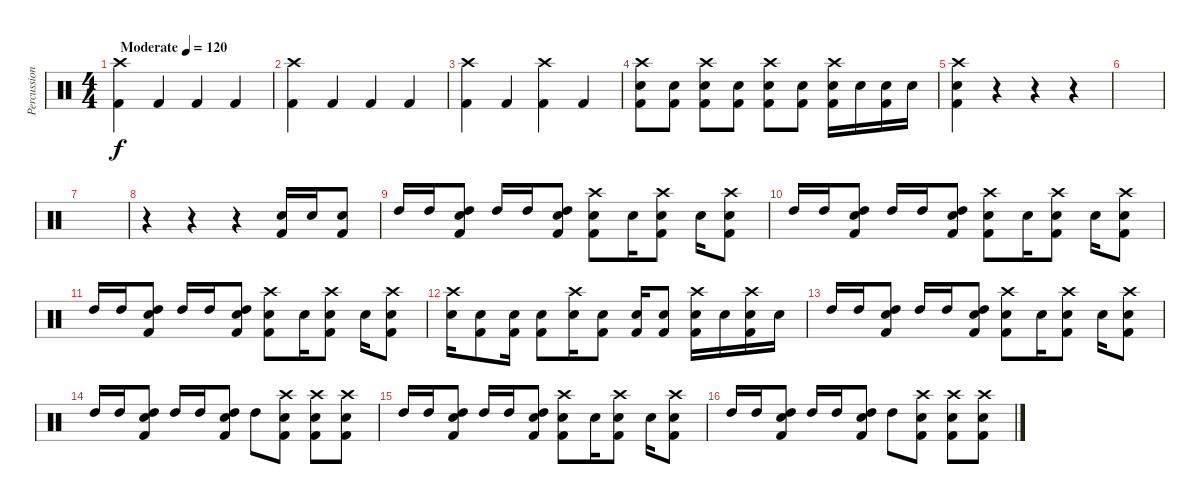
\track ("Percussion" "Percussion") {instrument percussion}
\staff {score}
\articulation defaults
\ts (4 4)
\tempo (120 "Moderate")
\clef neutral
\ks c
("Crash high (hit)" "Kick (hit) 2").4{dy f} "Kick (hit) 2".4 "Kick (hit) 2".4 "Kick (hit) 2".4 |
("Crash high (hit)" "Kick (hit) 2").4 "Kick (hit) 2".4 "Kick (hit) 2".4 "Kick (hit) 2".4 |
("Crash high (hit)" "Kick (hit) 2").4 "Kick (hit) 2".4 ("Crash high (hit)" "Kick (hit) 2").4 "Kick (hit) 2".4 |
("Crash high (hit)" "Electric Snare (hit)" "Kick (hit) 2").8 ("Electric Snare (hit)" "Kick (hit) 2").8 ("Crash high (hit)" "Electric Snare (hit)" "Kick (hit) 2").8 ("Electric Snare (hit)" "Kick (hit) 2").8 ("Crash high (hit)" "Electric Snare (hit)" "Kick (hit) 2").8 ("Electric Snare (hit)" "Kick (hit) 2").8 ("Crash high (hit)" "Electric Snare (hit)" "Kick (hit) 2").16 "Electric Snare (hit)".16 ("Electric Snare (hit)" "Kick (hit) 2").16 "Electric Snare (hit)".16 |
("Crash high (hit)" "Electric Snare (hit)" "Kick (hit) 2").4 r.4 r.4 r.4 |
|
|
r.4 r.4 r.4 ("Electric Snare (hit)" "Kick (hit) 2").16 "Electric Snare (hit)".16 ("Electric Snare (hit)" "Kick (hit) 2").8 |
"High Tom (hit)".16 "High Tom (hit)".16 ("Electric Snare (hit)" "High Tom (hit)" "Kick (hit) 2").8 "High Tom (hit)".16 "High Tom (hit)".16 ("Electric Snare (hit)" "High Tom (hit)" "Kick (hit) 2").8 ("Crash high (hit)" "Electric Snare (hit)" "Kick (hit) 2").8 "Electric Snare (hit)".16 ("Crash high (hit)" "Electric Snare (hit)" "Kick (hit) 2").8 "Electric Snare (hit)".16 ("Crash high (hit)" "Electric Snare (hit)" "Kick (hit) 2").8 |
"High Tom (hit)".16 "High Tom (hit)".16 ("Electric Snare (hit)" "High Tom (hit)" "Kick (hit) 2").8 "High Tom (hit)".16 "High Tom (hit)".16 ("Electric Snare (hit)" "High Tom (hit)" "Kick (hit) 2").8 ("Crash high (hit)" "Electric Snare (hit)" "Kick (hit) 2").8 "Electric Snare (hit)".16 ("Crash high (hit)" "Electric Snare (hit)" "Kick (hit) 2").8 "Electric Snare (hit)".16 ("Crash high (hit)" "Electric Snare (hit)" "Kick (hit) 2").8 |
"High Tom (hit)".16 "High Tom (hit)".16 ("Electric Snare (hit)" "High Tom (hit)" "Kick (hit) 2").8 "High Tom (hit)".16 "High Tom (hit)".16 ("Electric Snare (hit)" "High Tom (hit)" "Kick (hit) 2").8 ("Crash high (hit)" "Electric Snare (hit)" "Kick (hit) 2").8 "Electric Snare (hit)".16 ("Crash high (hit)" "Electric Snare (hit)" "Kick (hit) 2").8 "Electric Snare (hit)".16 ("Crash high (hit)" "Electric Snare (hit)" "Kick (hit) 2").8 |
("Crash high (hit)" "Electric Snare (hit)").16 ("Electric Snare (hit)" "Kick (hit) 2").8 ("Electric Snare (hit)" "Kick (hit) 2").16 ("Electric Snare (hit)" "Kick (hit) 2").8 ("Crash high (hit)" "Electric Snare (hit)").16 ("Electric Snare (hit)" "Kick (hit) 2").8 ("Electric Snare (hit)" "Kick (hit) 2").16 ("Electric Snare (hit)" "Kick (hit) 2").8 ("Crash high (hit)" "Electric Snare (hit)" "Kick (hit) 2").16 "Electric Snare (hit)".16 ("Crash high (hit)" "Electric Snare (hit)" "Kick (hit) 2").16 "Electric Snare (hit)".16 |
"High Tom (hit)".16 "High Tom (hit)".16 ("Electric Snare (hit)" "High Tom (hit)" "Kick (hit) 2").8 "High Tom (hit)".16 "High Tom (hit)".16 ("Electric Snare (hit)" "High Tom (hit)" "Kick (hit) 2").8 ("Crash high (hit)" "Electric Snare (hit)" "Kick (hit) 2").8 "Electric Snare (hit)".16 ("Crash high (hit)" "Electric Snare (hit)" "Kick (hit) 2").8 "Electric Snare (hit)".16 ("Crash high (hit)" "Electric Snare (hit)" "Kick (hit) 2").8 |
"High Tom (hit)".16 "High Tom (hit)".16 ("Electric Snare (hit)" "High Tom (hit)" "Kick (hit) 2").8 "High Tom (hit)".16 "High Tom (hit)".16 ("Electric Snare (hit)" "High Tom (hit)" "Kick (hit) 2").8 "High Tom (hit)".8 ("Electric Snare (hit)" "Crash high (hit)" "Kick (hit) 2").8 ("Electric Snare (hit)" "Crash high (hit)" "Kick (hit) 2").8 ("Electric Snare (hit)" "Crash high (hit)" "Kick (hit) 2").8 |
"High Tom (hit)".16 "High Tom (hit)".16 ("Electric Snare (hit)" "High Tom (hit)" "Kick (hit) 2").8 "High Tom (hit)".16 "High Tom (hit)".16 ("Electric Snare (hit)" "High Tom (hit)" "Kick (hit) 2").8 ("Crash high (hit)" "Electric Snare (hit)" "Kick (hit) 2").8 "Electric Snare (hit)".16 ("Crash high (hit)" "Electric Snare (hit)" "Kick (hit) 2").8 "Electric Snare (hit)".16 ("Crash high (hit)" "Electric Snare (hit)" "Kick (hit) 2").8 |
"High Tom (hit)".16 "High Tom (hit)".16 ("Electric Snare (hit)" "High Tom (hit)" "Kick (hit) 2").8 "High Tom (hit)".16 "High Tom (hit)".16 ("Electric Snare (hit)" "High Tom (hit)" "Kick (hit) 2").8 "High Tom (hit)".8 ("Electric Snare (hit)" "Crash high (hit)" "Kick (hit) 2").8 ("Electric Snare (hit)" "Crash high (hit)" "Kick (hit) 2").8 ("Electric Snare (hit)" "Crash high (hit)" "Kick (hit) 2").8
